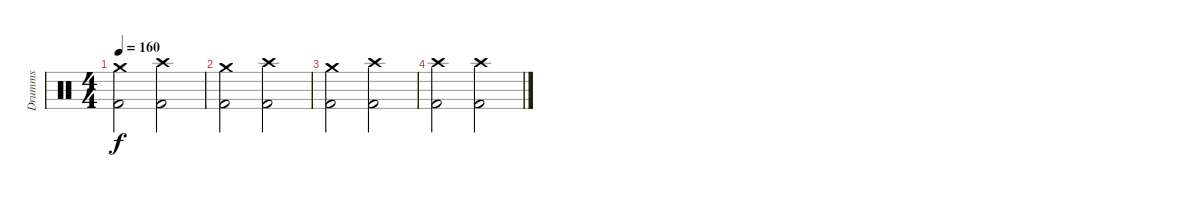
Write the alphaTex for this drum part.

\track ("Drumms" "Drumms") {instrument percussion}
\staff {score}
\articulation defaults
\ts (4 4)
\tempo 160
\clef neutral
\ks c
("Crash medium (hit)" "Kick (hit) 2").2{dy f} ("Crash high (hit)" "Kick (hit) 2").2 |
("Crash medium (hit)" "Kick (hit) 2").2 ("Crash high (hit)" "Kick (hit) 2").2 |
("Crash medium (hit)" "Kick (hit) 2").2 ("Crash high (hit)" "Kick (hit) 2").2 |
("Crash high (hit)" "Kick (hit) 2").2 ("Crash high (hit)" "Kick (hit) 2").2
